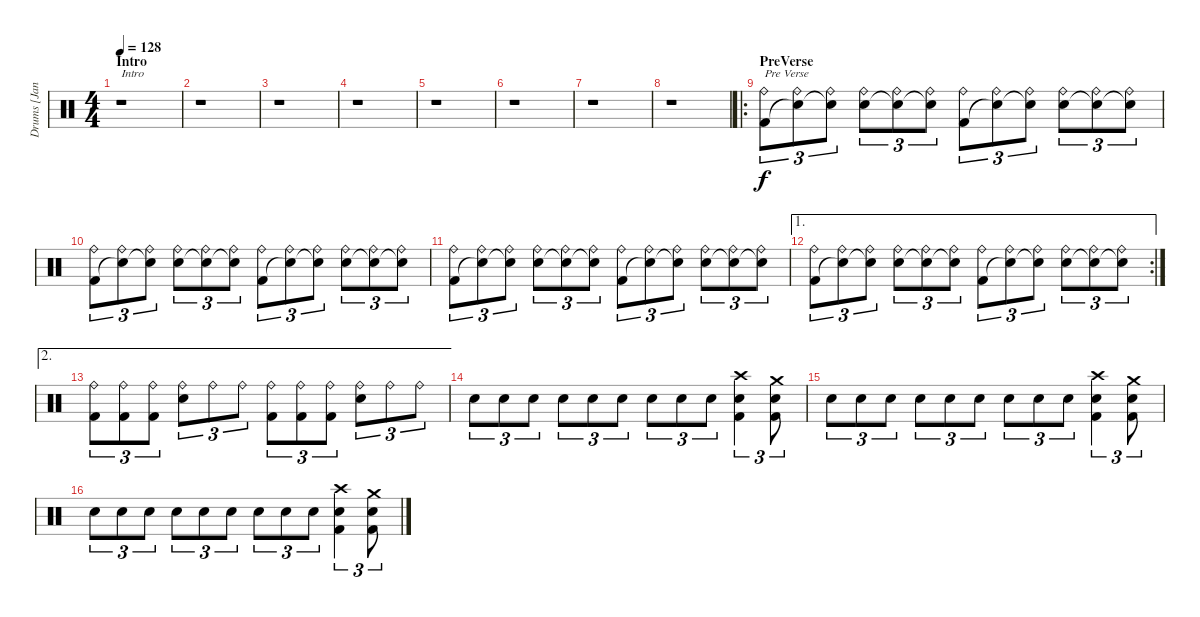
\track ("Drums [Janne Saarenpaa]" "Drums [Jan") {instrument percussion}
\staff {score}
\articulation defaults
\ts (4 4)
\section ("" "Intro")
\tempo 128
\clef neutral
\ks c
r.1{txt "Intro" dy f} |
r.1 |
r.1 |
r.1 |
r.1 |
r.1 |
r.1 |
r.1 |
\ro
\section ("" "PreVerse")
("Ride (bell)" "Kick (hit) 2").8{tu (3 2) txt "Pre Verse"} ("Ride (bell)" "Snare (hit)"{t}).8{tu (3 2)} ("Ride (bell)" "Snare (hit)"{t}).8{tu (3 2)} ("Ride (bell)" "Electric Snare (hit)").8{tu (3 2)} ("Ride (bell)" "Snare (hit)"{t}).8{tu (3 2)} ("Ride (bell)" "Snare (hit)"{t}).8{tu (3 2)} ("Ride (bell)" "Kick (hit) 2").8{tu (3 2)} ("Ride (bell)" "Snare (hit)"{t}).8{tu (3 2)} ("Ride (bell)" "Snare (hit)"{t}).8{tu (3 2)} ("Ride (bell)" "Electric Snare (hit)").8{tu (3 2)} ("Ride (bell)" "Snare (hit)"{t}).8{tu (3 2)} ("Ride (bell)" "Snare (hit)"{t}).8{tu (3 2)} |
("Ride (bell)" "Kick (hit) 2").8{tu (3 2)} ("Ride (bell)" "Snare (hit)"{t}).8{tu (3 2)} ("Ride (bell)" "Snare (hit)"{t}).8{tu (3 2)} ("Ride (bell)" "Electric Snare (hit)").8{tu (3 2)} ("Ride (bell)" "Snare (hit)"{t}).8{tu (3 2)} ("Ride (bell)" "Snare (hit)"{t}).8{tu (3 2)} ("Ride (bell)" "Kick (hit) 2").8{tu (3 2)} ("Ride (bell)" "Snare (hit)"{t}).8{tu (3 2)} ("Ride (bell)" "Snare (hit)"{t}).8{tu (3 2)} ("Ride (bell)" "Electric Snare (hit)").8{tu (3 2)} ("Ride (bell)" "Snare (hit)"{t}).8{tu (3 2)} ("Ride (bell)" "Snare (hit)"{t}).8{tu (3 2)} |
("Ride (bell)" "Kick (hit) 2").8{tu (3 2)} ("Ride (bell)" "Snare (hit)"{t}).8{tu (3 2)} ("Ride (bell)" "Snare (hit)"{t}).8{tu (3 2)} ("Ride (bell)" "Electric Snare (hit)").8{tu (3 2)} ("Ride (bell)" "Snare (hit)"{t}).8{tu (3 2)} ("Ride (bell)" "Snare (hit)"{t}).8{tu (3 2)} ("Ride (bell)" "Kick (hit) 2").8{tu (3 2)} ("Ride (bell)" "Snare (hit)"{t}).8{tu (3 2)} ("Ride (bell)" "Snare (hit)"{t}).8{tu (3 2)} ("Ride (bell)" "Electric Snare (hit)").8{tu (3 2)} ("Ride (bell)" "Snare (hit)"{t}).8{tu (3 2)} ("Ride (bell)" "Snare (hit)"{t}).8{tu (3 2)} |
\ae 1
\rc 2
("Ride (bell)" "Kick (hit) 2").8{tu (3 2)} ("Ride (bell)" "Snare (hit)"{t}).8{tu (3 2)} ("Ride (bell)" "Snare (hit)"{t}).8{tu (3 2)} ("Ride (bell)" "Electric Snare (hit)").8{tu (3 2)} ("Ride (bell)" "Snare (hit)"{t}).8{tu (3 2)} ("Ride (bell)" "Snare (hit)"{t}).8{tu (3 2)} ("Ride (bell)" "Kick (hit) 2").8{tu (3 2)} ("Ride (bell)" "Snare (hit)"{t}).8{tu (3 2)} ("Ride (bell)" "Snare (hit)"{t}).8{tu (3 2)} ("Ride (bell)" "Electric Snare (hit)").8{tu (3 2)} ("Ride (bell)" "Snare (hit)"{t}).8{tu (3 2)} ("Ride (bell)" "Snare (hit)"{t}).8{tu (3 2)} |
\ae 2
("Ride (bell)" "Kick (hit) 2").8{tu (3 2)} ("Ride (bell)" "Kick (hit) 2").8{tu (3 2)} ("Ride (bell)" "Kick (hit) 2").8{tu (3 2)} ("Ride (bell)" "Electric Snare (hit)").8{tu (3 2)} "Ride (bell)".8{tu (3 2)} "Ride (bell)".8{tu (3 2)} ("Ride (bell)" "Kick (hit) 2").8{tu (3 2)} ("Ride (bell)" "Kick (hit) 2").8{tu (3 2)} ("Ride (bell)" "Kick (hit) 2").8{tu (3 2)} ("Ride (bell)" "Electric Snare (hit)").8{tu (3 2)} "Ride (bell)".8{tu (3 2)} "Ride (bell)".8{tu (3 2)} |
"Electric Snare (hit)".8{tu (3 2)} "Electric Snare (hit)".8{tu (3 2)} "Electric Snare (hit)".8{tu (3 2)} "Electric Snare (hit)".8{tu (3 2)} "Electric Snare (hit)".8{tu (3 2)} "Electric Snare (hit)".8{tu (3 2)} "Electric Snare (hit)".8{tu (3 2)} "Electric Snare (hit)".8{tu (3 2)} "Electric Snare (hit)".8{tu (3 2)} ("Crash high (hit)" "Electric Snare (hit)" "Kick (hit) 2").4{tu (3 2)} ("Crash medium (hit)" "Electric Snare (hit)" "Kick (hit) 2").8{tu (3 2)} |
"Electric Snare (hit)".8{tu (3 2)} "Electric Snare (hit)".8{tu (3 2)} "Electric Snare (hit)".8{tu (3 2)} "Electric Snare (hit)".8{tu (3 2)} "Electric Snare (hit)".8{tu (3 2)} "Electric Snare (hit)".8{tu (3 2)} "Electric Snare (hit)".8{tu (3 2)} "Electric Snare (hit)".8{tu (3 2)} "Electric Snare (hit)".8{tu (3 2)} ("Crash high (hit)" "Electric Snare (hit)" "Kick (hit) 2").4{tu (3 2)} ("Crash medium (hit)" "Electric Snare (hit)" "Kick (hit) 2").8{tu (3 2)} |
"Electric Snare (hit)".8{tu (3 2)} "Electric Snare (hit)".8{tu (3 2)} "Electric Snare (hit)".8{tu (3 2)} "Electric Snare (hit)".8{tu (3 2)} "Electric Snare (hit)".8{tu (3 2)} "Electric Snare (hit)".8{tu (3 2)} "Electric Snare (hit)".8{tu (3 2)} "Electric Snare (hit)".8{tu (3 2)} "Electric Snare (hit)".8{tu (3 2)} ("Crash high (hit)" "Electric Snare (hit)" "Kick (hit) 2").4{tu (3 2)} ("Crash medium (hit)" "Electric Snare (hit)" "Kick (hit) 2").8{tu (3 2)}
